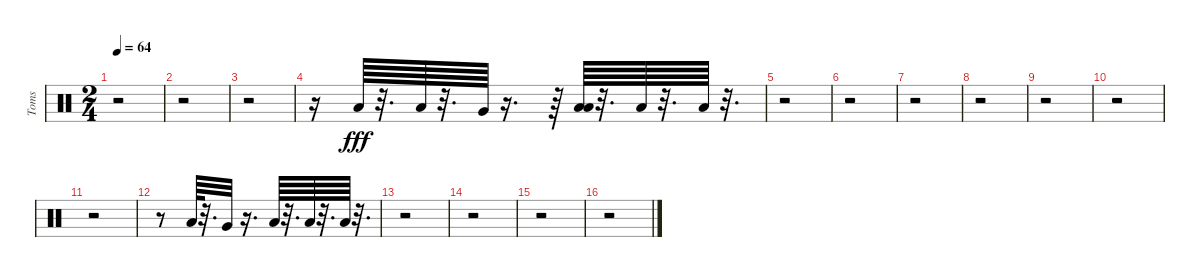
\track ("Toms" "Toms") {instrument percussion}
\staff {score}
\articulation defaults
\ts (2 4)
\tempo 64
\clef neutral
\ks c
r.2{dy fff} |
r.2 |
r.2 |
r.16 "Low Tom (hit)".64 r.32{d} "Low Tom (hit)".64 r.32{d} "Very Low Tom (hit)".64 r.16{d} r.64 ("Low Floor Tom (hit)" "Low Floor Tom (hit)").64 r.32{d} "Low Floor Tom (hit)".64 r.32{d} "Low Floor Tom (hit)".64 r.32{d} |
r.2 |
r.2 |
r.2 |
r.2 |
r.2 |
r.2 |
r.2 |
r.8 "Low Tom (hit)".64 r.32{d} "Very Low Tom (hit)".32 r.16{d} "Low Floor Tom (hit)".64 r.32{d} "Low Floor Tom (hit)".64 r.32{d} "Low Floor Tom (hit)".64 r.32{d} |
r.2 |
r.2 |
r.2 |
r.2
